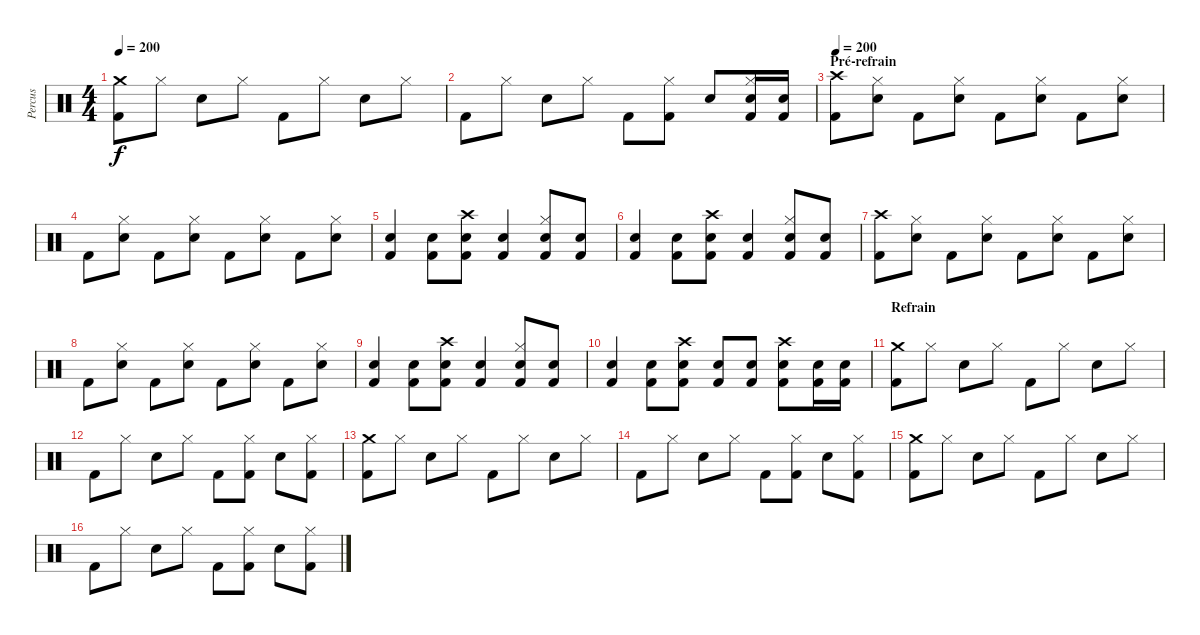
\track ("Percus" "Percus") {instrument percussion}
\staff {score}
\articulation defaults
\ts (4 4)
\tempo 200
\clef neutral
\ks c
("Crash medium (hit)" "Kick (hit) 2").8{dy f} "Hi-Hat (closed)".8 "Snare (hit) 2".8 "Hi-Hat (closed)".8 "Kick (hit) 2".8 "Hi-Hat (closed)".8 "Snare (hit) 2".8 "Hi-Hat (closed)".8 |
"Kick (hit) 2".8 "Hi-Hat (closed)".8 "Snare (hit) 2".8 "Hi-Hat (closed)".8 "Kick (hit) 2".8 ("Hi-Hat (closed)" "Kick (hit) 2").8 "Snare (hit) 2".8 ("Hi-Hat (closed)" "Snare (hit) 2" "Kick (hit) 2").16 ("Snare (hit) 2" "Kick (hit) 2").16 |
\section ("" "Pré-refrain")
\tempo 200
("Crash high (hit)" "Kick (hit) 2").8 ("Hi-Hat (closed)" "Snare (hit) 2").8 "Kick (hit) 2".8 ("Hi-Hat (closed)" "Snare (hit) 2").8 "Kick (hit) 2".8 ("Hi-Hat (closed)" "Snare (hit) 2").8 "Kick (hit) 2".8 ("Hi-Hat (closed)" "Snare (hit) 2").8 |
"Kick (hit) 2".8 ("Hi-Hat (closed)" "Snare (hit) 2").8 "Kick (hit) 2".8 ("Hi-Hat (closed)" "Snare (hit) 2").8 "Kick (hit) 2".8 ("Hi-Hat (closed)" "Snare (hit) 2").8 "Kick (hit) 2".8 ("Hi-Hat (closed)" "Snare (hit) 2").8 |
("Snare (hit) 2" "Kick (hit) 2").4 ("Snare (hit) 2" "Kick (hit) 2").8 ("Crash high (hit)" "Snare (hit) 2" "Kick (hit) 2").8 ("Snare (hit) 2" "Kick (hit) 2").4 ("Hi-Hat (closed)" "Snare (hit) 2" "Kick (hit) 2").8 ("Snare (hit) 2" "Kick (hit) 2").8 |
("Snare (hit) 2" "Kick (hit) 2").4 ("Snare (hit) 2" "Kick (hit) 2").8 ("Crash high (hit)" "Snare (hit) 2" "Kick (hit) 2").8 ("Snare (hit) 2" "Kick (hit) 2").4 ("Hi-Hat (closed)" "Snare (hit) 2" "Kick (hit) 2").8 ("Snare (hit) 2" "Kick (hit) 2").8 |
("Crash high (hit)" "Kick (hit) 2").8 ("Hi-Hat (closed)" "Snare (hit) 2").8 "Kick (hit) 2".8 ("Hi-Hat (closed)" "Snare (hit) 2").8 "Kick (hit) 2".8 ("Hi-Hat (closed)" "Snare (hit) 2").8 "Kick (hit) 2".8 ("Hi-Hat (closed)" "Snare (hit) 2").8 |
"Kick (hit) 2".8 ("Hi-Hat (closed)" "Snare (hit) 2").8 "Kick (hit) 2".8 ("Hi-Hat (closed)" "Snare (hit) 2").8 "Kick (hit) 2".8 ("Hi-Hat (closed)" "Snare (hit) 2").8 "Kick (hit) 2".8 ("Hi-Hat (closed)" "Snare (hit) 2").8 |
("Snare (hit) 2" "Kick (hit) 2").4 ("Snare (hit) 2" "Kick (hit) 2").8 ("Crash high (hit)" "Snare (hit) 2" "Kick (hit) 2").8 ("Snare (hit) 2" "Kick (hit) 2").4 ("Hi-Hat (closed)" "Snare (hit) 2" "Kick (hit) 2").8 ("Snare (hit) 2" "Kick (hit) 2").8 |
("Snare (hit) 2" "Kick (hit) 2").4 ("Snare (hit) 2" "Kick (hit) 2").8 ("Crash high (hit)" "Snare (hit) 2" "Kick (hit) 2").8 ("Snare (hit) 2" "Kick (hit) 2").8 ("Snare (hit) 2" "Kick (hit) 2").8 ("Crash high (hit)" "Snare (hit) 2" "Kick (hit) 2").8 ("Snare (hit) 2" "Kick (hit) 2").16 ("Snare (hit) 2" "Kick (hit) 2").16 |
\section ("" "Refrain")
("Crash medium (hit)" "Kick (hit) 2").8 "Hi-Hat (closed)".8 "Snare (hit) 2".8 "Hi-Hat (closed)".8 "Kick (hit) 2".8 "Hi-Hat (closed)".8 "Snare (hit) 2".8 "Hi-Hat (closed)".8 |
"Kick (hit) 2".8 "Hi-Hat (closed)".8 "Snare (hit) 2".8 "Hi-Hat (closed)".8 "Kick (hit) 2".8 ("Hi-Hat (closed)" "Kick (hit) 2").8 "Snare (hit) 2".8 ("Hi-Hat (closed)" "Kick (hit) 2").8 |
("Crash medium (hit)" "Kick (hit) 2").8 "Hi-Hat (closed)".8 "Snare (hit) 2".8 "Hi-Hat (closed)".8 "Kick (hit) 2".8 "Hi-Hat (closed)".8 "Snare (hit) 2".8 "Hi-Hat (closed)".8 |
"Kick (hit) 2".8 "Hi-Hat (closed)".8 "Snare (hit) 2".8 "Hi-Hat (closed)".8 "Kick (hit) 2".8 ("Hi-Hat (closed)" "Kick (hit) 2").8 "Snare (hit) 2".8 ("Hi-Hat (closed)" "Kick (hit) 2").8 |
("Crash medium (hit)" "Kick (hit) 2").8 "Hi-Hat (closed)".8 "Snare (hit) 2".8 "Hi-Hat (closed)".8 "Kick (hit) 2".8 "Hi-Hat (closed)".8 "Snare (hit) 2".8 "Hi-Hat (closed)".8 |
"Kick (hit) 2".8 "Hi-Hat (closed)".8 "Snare (hit) 2".8 "Hi-Hat (closed)".8 "Kick (hit) 2".8 ("Hi-Hat (closed)" "Kick (hit) 2").8 "Snare (hit) 2".8 ("Hi-Hat (closed)" "Kick (hit) 2").8
